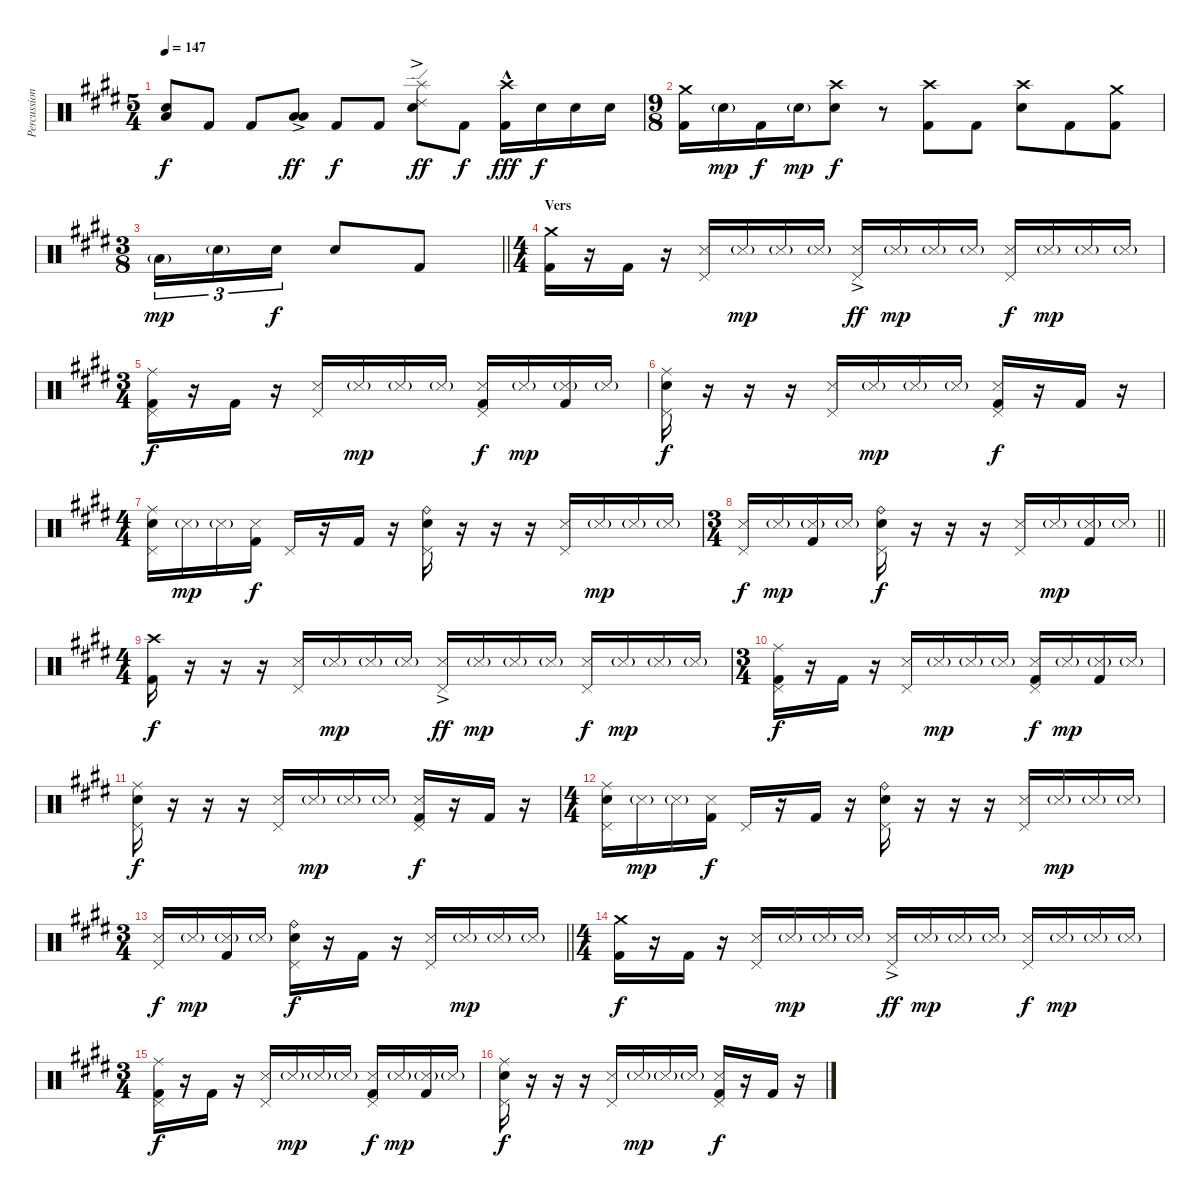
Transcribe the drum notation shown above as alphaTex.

\track ("Percussion" "Percussion") {instrument percussion}
\staff {score}
\articulation defaults
\ts (5 4)
\tempo 147
\clef neutral
\ks e
("Snare (hit) 2" "Low Tom (hit)").8{bd 120 dy f} "Kick (hit) 2".8 "Kick (hit) 2".8 ("Low Tom (hit)"{ac} "Low Floor Tom (hit)"{ac}).8{bd 120 dy ff} "Kick (hit) 2".8{dy f} "Kick (hit) 2".8 ("Ride (edge) 2" "Splash (hit)" "Snare (hit) 2"{ac}).8{dy ff} "Kick (hit) 2".8{dy f} ("Crash high (hit)"{hac} "Kick (hit) 2"{hac}).16{dy fff} "Snare (hit) 2".16{dy f} "Snare (hit) 2".16 "Snare (hit) 2".16 |
\ts (9 8)
("Crash medium (hit)" "Kick (hit) 2").16 "Snare (hit) 2"{g}.16{dy mp} "Kick (hit) 2".16{dy f} "Snare (hit) 2"{g}.16{dy mp} ("Crash high (hit)" "Snare (hit) 2").8{dy f} r.8 ("Crash high (hit)" "Kick (hit) 2").8 "Kick (hit) 2".8 ("Crash high (hit)" "Snare (hit) 2").8 "Kick (hit) 2".8 ("Crash medium (hit)" "Kick (hit) 2").8 |
\ts (3 8)
\barLineRight lightlight "Low Tom (hit)"{g}.16{tu (3 2) dy mp} "Snare (hit) 2"{g}.16{tu (3 2)} "Snare (hit) 2".16{tu (3 2) dy f} "Snare (hit) 2".8 "Kick (hit) 2".8
|
\ts (4 4)
\section ("" "Vers")
("Crash medium (hit)" "Kick (hit) 2").16 r.16 "Kick (hit) 2".16 r.16 ("Pedal Hi-Hat (hit)" "Snare (side stick) 3").16 "Snare (side stick) 3"{g}.16{dy mp} "Snare (side stick) 3"{g}.16 "Snare (side stick) 3"{g}.16 ("Pedal Hi-Hat (hit)" "Snare (side stick) 3"{ac}).16{dy ff} "Snare (side stick) 3"{g}.16{dy mp} "Snare (side stick) 3"{g}.16 "Snare (side stick) 3"{g}.16 ("Pedal Hi-Hat (hit)" "Snare (side stick) 3").16{dy f} "Snare (side stick) 3"{g}.16{dy mp} "Snare (side stick) 3"{g}.16 "Snare (side stick) 3"{g}.16 |
\ts (3 4)
("Ride (middle)" "Pedal Hi-Hat (hit)" "Kick (hit) 2").16{dy f} r.16 "Kick (hit) 2".16 r.16 ("Pedal Hi-Hat (hit)" "Snare (side stick) 3").16 "Snare (side stick) 3"{g}.16{dy mp} "Snare (side stick) 3"{g}.16 "Snare (side stick) 3"{g}.16 ("Pedal Hi-Hat (hit)" "Snare (side stick) 3" "Kick (hit) 2").16{dy f} "Snare (side stick) 3"{g}.16{dy mp} ("Snare (side stick) 3"{g} "Kick (hit) 2").16 "Snare (side stick) 3"{g}.16 |
("Ride (middle)" "Pedal Hi-Hat (hit)" "Snare (hit) 2").16{dy f} r.16 r.16 r.16 ("Pedal Hi-Hat (hit)" "Snare (side stick) 3").16 "Snare (side stick) 3"{g}.16{dy mp} "Snare (side stick) 3"{g}.16 "Snare (side stick) 3"{g}.16 ("Pedal Hi-Hat (hit)" "Snare (side stick) 3" "Kick (hit) 2").16{dy f} r.16 "Kick (hit) 2".16 r.16 |
\ts (4 4)
("Ride (middle)" "Pedal Hi-Hat (hit)" "Snare (hit) 2").16 "Snare (side stick) 3"{g}.16{dy mp} "Snare (side stick) 3"{g}.16 ("Snare (side stick) 3" "Kick (hit) 2").16{dy f} "Pedal Hi-Hat (hit)".16 r.16 "Kick (hit) 2".16 r.16 ("Ride (bell)" "Pedal Hi-Hat (hit)" "Snare (hit) 2").16 r.16 r.16 r.16 ("Pedal Hi-Hat (hit)" "Snare (side stick) 3").16 "Snare (side stick) 3"{g}.16{dy mp} "Snare (side stick) 3"{g}.16 "Snare (side stick) 3"{g}.16 |
\ts (3 4)
\barLineRight lightlight
("Pedal Hi-Hat (hit)" "Snare (side stick) 3").16{dy f} "Snare (side stick) 3"{g}.16{dy mp} ("Snare (side stick) 3"{g} "Kick (hit) 2").16 "Snare (side stick) 3"{g}.16 ("Ride (bell)" "Pedal Hi-Hat (hit)" "Snare (hit) 2").16{dy f} r.16 r.16 r.16 ("Pedal Hi-Hat (hit)" "Snare (side stick) 3").16 "Snare (side stick) 3"{g}.16{dy mp} ("Snare (side stick) 3"{g} "Kick (hit) 2").16 "Snare (side stick) 3"{g}.16 |
\ts (4 4)
("Crash high (hit)" "Kick (hit) 2").16{dy f} r.16 r.16 r.16 ("Pedal Hi-Hat (hit)" "Snare (side stick) 3").16 "Snare (side stick) 3"{g}.16{dy mp} "Snare (side stick) 3"{g}.16 "Snare (side stick) 3"{g}.16 ("Pedal Hi-Hat (hit)" "Snare (side stick) 3"{ac}).16{dy ff} "Snare (side stick) 3"{g}.16{dy mp} "Snare (side stick) 3"{g}.16 "Snare (side stick) 3"{g}.16 ("Pedal Hi-Hat (hit)" "Snare (side stick) 3").16{dy f} "Snare (side stick) 3"{g}.16{dy mp} "Snare (side stick) 3"{g}.16 "Snare (side stick) 3"{g}.16 |
\ts (3 4)
("Ride (middle)" "Pedal Hi-Hat (hit)" "Kick (hit) 2").16{dy f} r.16 "Kick (hit) 2".16 r.16 ("Pedal Hi-Hat (hit)" "Snare (side stick) 3").16 "Snare (side stick) 3"{g}.16{dy mp} "Snare (side stick) 3"{g}.16 "Snare (side stick) 3"{g}.16 ("Pedal Hi-Hat (hit)" "Snare (side stick) 3" "Kick (hit) 2").16{dy f} "Snare (side stick) 3"{g}.16{dy mp} ("Snare (side stick) 3"{g} "Kick (hit) 2").16 "Snare (side stick) 3"{g}.16 |
("Ride (middle)" "Pedal Hi-Hat (hit)" "Snare (hit) 2").16{dy f} r.16 r.16 r.16 ("Pedal Hi-Hat (hit)" "Snare (side stick) 3").16 "Snare (side stick) 3"{g}.16{dy mp} "Snare (side stick) 3"{g}.16 "Snare (side stick) 3"{g}.16 ("Pedal Hi-Hat (hit)" "Snare (side stick) 3" "Kick (hit) 2").16{dy f} r.16 "Kick (hit) 2".16 r.16 |
\ts (4 4)
("Ride (middle)" "Pedal Hi-Hat (hit)" "Snare (hit) 2").16 "Snare (side stick) 3"{g}.16{dy mp} "Snare (side stick) 3"{g}.16 ("Snare (side stick) 3" "Kick (hit) 2").16{dy f} "Pedal Hi-Hat (hit)".16 r.16 "Kick (hit) 2".16 r.16 ("Ride (bell)" "Pedal Hi-Hat (hit)" "Snare (hit) 2").16 r.16 r.16 r.16 ("Pedal Hi-Hat (hit)" "Snare (side stick) 3").16 "Snare (side stick) 3"{g}.16{dy mp} "Snare (side stick) 3"{g}.16 "Snare (side stick) 3"{g}.16 |
\ts (3 4)
\barLineRight lightlight
("Pedal Hi-Hat (hit)" "Snare (side stick) 3").16{dy f} "Snare (side stick) 3"{g}.16{dy mp} ("Snare (side stick) 3"{g} "Kick (hit) 2").16 "Snare (side stick) 3"{g}.16 ("Ride (bell)" "Pedal Hi-Hat (hit)" "Snare (hit) 2").16{dy f} r.16 "Kick (hit) 2".16 r.16 ("Pedal Hi-Hat (hit)" "Snare (side stick) 3").16 "Snare (side stick) 3"{g}.16{dy mp} "Snare (side stick) 3"{g}.16 "Snare (side stick) 3"{g}.16 |
\ts (4 4)
("Crash medium (hit)" "Kick (hit) 2").16{dy f} r.16 "Kick (hit) 2".16 r.16 ("Pedal Hi-Hat (hit)" "Snare (side stick) 3").16 "Snare (side stick) 3"{g}.16{dy mp} "Snare (side stick) 3"{g}.16 "Snare (side stick) 3"{g}.16 ("Pedal Hi-Hat (hit)" "Snare (side stick) 3"{ac}).16{dy ff} "Snare (side stick) 3"{g}.16{dy mp} "Snare (side stick) 3"{g}.16 "Snare (side stick) 3"{g}.16 ("Pedal Hi-Hat (hit)" "Snare (side stick) 3").16{dy f} "Snare (side stick) 3"{g}.16{dy mp} "Snare (side stick) 3"{g}.16 "Snare (side stick) 3"{g}.16 |
\ts (3 4)
("Ride (middle)" "Pedal Hi-Hat (hit)" "Kick (hit) 2").16{dy f} r.16 "Kick (hit) 2".16 r.16 ("Pedal Hi-Hat (hit)" "Snare (side stick) 3").16 "Snare (side stick) 3"{g}.16{dy mp} "Snare (side stick) 3"{g}.16 "Snare (side stick) 3"{g}.16 ("Pedal Hi-Hat (hit)" "Snare (side stick) 3" "Kick (hit) 2").16{dy f} "Snare (side stick) 3"{g}.16{dy mp} ("Snare (side stick) 3"{g} "Kick (hit) 2").16 "Snare (side stick) 3"{g}.16 |
("Ride (middle)" "Pedal Hi-Hat (hit)" "Snare (hit) 2").16{dy f} r.16 r.16 r.16 ("Pedal Hi-Hat (hit)" "Snare (side stick) 3").16 "Snare (side stick) 3"{g}.16{dy mp} "Snare (side stick) 3"{g}.16 "Snare (side stick) 3"{g}.16 ("Pedal Hi-Hat (hit)" "Snare (side stick) 3" "Kick (hit) 2").16{dy f} r.16 "Kick (hit) 2".16 r.16
